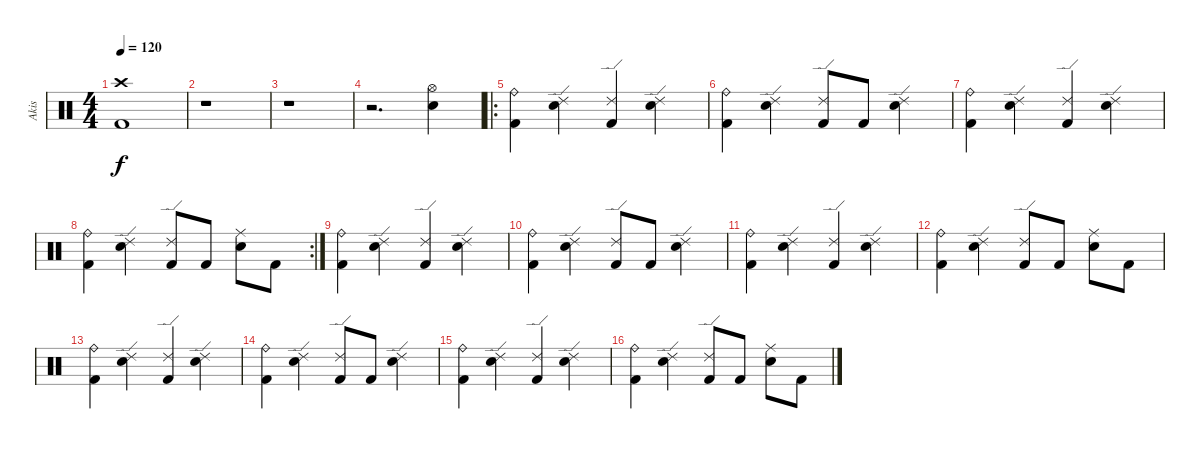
\track ("Akis" "Akis") {instrument percussion}
\staff {score}
\articulation defaults
\ts (4 4)
\tempo 120
\clef neutral
\ks c
("Crash high (hit)" "Kick (hit) 2").1{dy f} |
r.1 |
r.1 |
r.2{d} ("Hi-Hat (open)" "Electric Snare (hit)").4 |
\ro
("Ride (bell)" "Kick (hit) 2").4 ("Ride (edge) 2" "Electric Snare (hit)").4 ("Ride (edge) 2" "Kick (hit) 2").4 ("Ride (edge) 2" "Electric Snare (hit)").4 |
("Ride (bell)" "Kick (hit) 2").4 ("Ride (edge) 2" "Electric Snare (hit)").4 ("Ride (edge) 2" "Kick (hit) 2").8 "Kick (hit) 2".8 ("Ride (edge) 2" "Electric Snare (hit)").4 |
("Ride (bell)" "Kick (hit) 2").4 ("Ride (edge) 2" "Electric Snare (hit)").4 ("Ride (edge) 2" "Kick (hit) 2").4 ("Ride (edge) 2" "Electric Snare (hit)").4 |
\rc 2
("Ride (bell)" "Kick (hit) 2").4 ("Ride (edge) 2" "Electric Snare (hit)").4 ("Ride (edge) 2" "Kick (hit) 2").8 "Kick (hit) 2".8 ("Ride (middle)" "Electric Snare (hit)").8 "Kick (hit) 2".8 |
("Ride (bell)" "Kick (hit) 2").4 ("Ride (edge) 2" "Electric Snare (hit)").4 ("Ride (edge) 2" "Kick (hit) 2").4 ("Ride (edge) 2" "Electric Snare (hit)").4 |
("Ride (bell)" "Kick (hit) 2").4 ("Ride (edge) 2" "Electric Snare (hit)").4 ("Ride (edge) 2" "Kick (hit) 2").8 "Kick (hit) 2".8 ("Ride (edge) 2" "Electric Snare (hit)").4 |
("Ride (bell)" "Kick (hit) 2").4 ("Ride (edge) 2" "Electric Snare (hit)").4 ("Ride (edge) 2" "Kick (hit) 2").4 ("Ride (edge) 2" "Electric Snare (hit)").4 |
("Ride (bell)" "Kick (hit) 2").4 ("Ride (edge) 2" "Electric Snare (hit)").4 ("Ride (edge) 2" "Kick (hit) 2").8 "Kick (hit) 2".8 ("Ride (middle)" "Electric Snare (hit)").8 "Kick (hit) 2".8 |
("Ride (bell)" "Kick (hit) 2").4 ("Ride (edge) 2" "Electric Snare (hit)").4 ("Ride (edge) 2" "Kick (hit) 2").4 ("Ride (edge) 2" "Electric Snare (hit)").4 |
("Ride (bell)" "Kick (hit) 2").4 ("Ride (edge) 2" "Electric Snare (hit)").4 ("Ride (edge) 2" "Kick (hit) 2").8 "Kick (hit) 2".8 ("Ride (edge) 2" "Electric Snare (hit)").4 |
("Ride (bell)" "Kick (hit) 2").4 ("Ride (edge) 2" "Electric Snare (hit)").4 ("Ride (edge) 2" "Kick (hit) 2").4 ("Ride (edge) 2" "Electric Snare (hit)").4 |
("Ride (bell)" "Kick (hit) 2").4 ("Ride (edge) 2" "Electric Snare (hit)").4 ("Ride (edge) 2" "Kick (hit) 2").8 "Kick (hit) 2".8 ("Ride (middle)" "Electric Snare (hit)").8 "Kick (hit) 2".8
